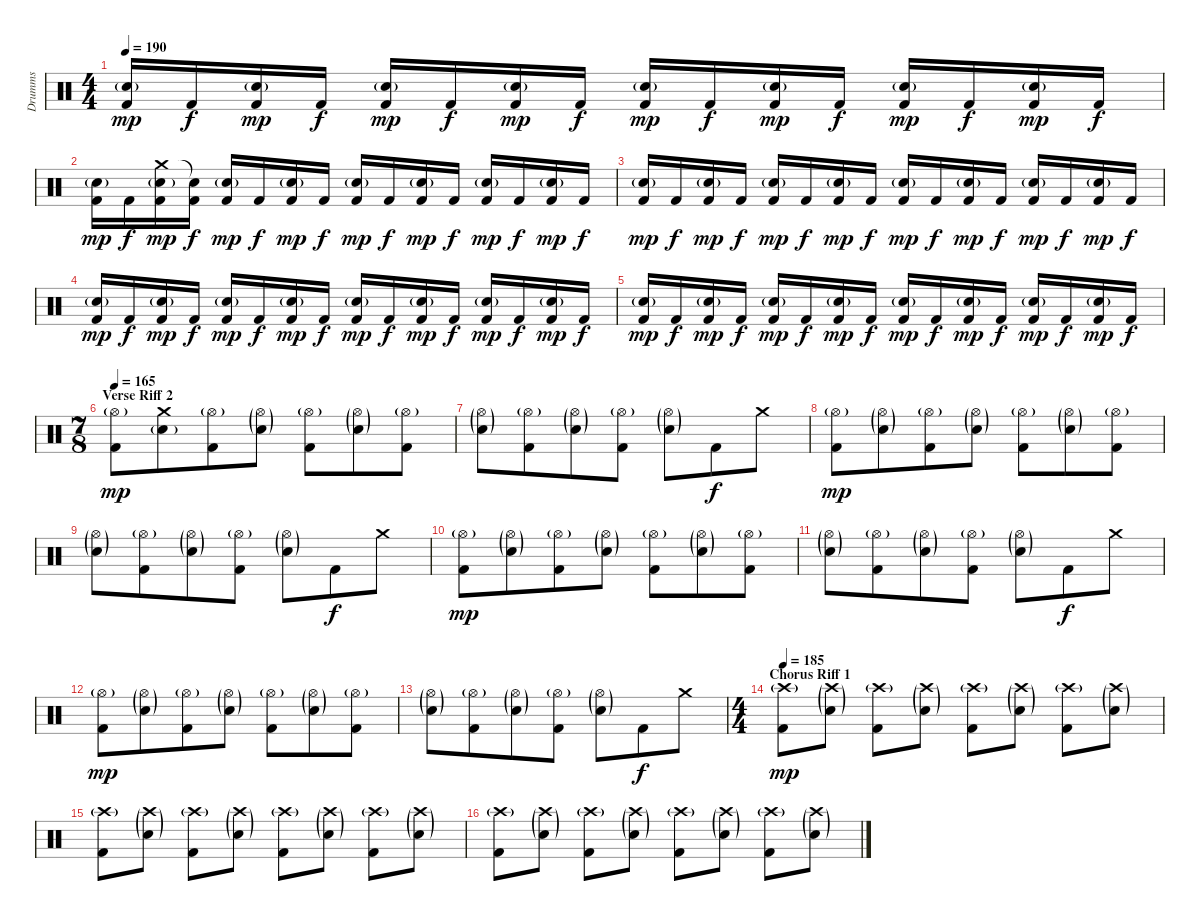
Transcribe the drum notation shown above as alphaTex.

\track ("Drumms" "Drumms") {instrument percussion}
\staff {score}
\articulation defaults
\ts (4 4)
\tempo 190
\clef neutral
\ks c
("Electric Snare (hit)"{g} "Kick (hit) 2").16{dy mp} "Kick (hit) 2".16{dy f} ("Electric Snare (hit)"{g} "Kick (hit) 2").16{dy mp} "Kick (hit) 2".16{dy f} ("Electric Snare (hit)"{g} "Kick (hit) 2").16{dy mp} "Kick (hit) 2".16{dy f} ("Electric Snare (hit)"{g} "Kick (hit) 2").16{dy mp} "Kick (hit) 2".16{dy f} ("Electric Snare (hit)"{g} "Kick (hit) 2").16{dy mp} "Kick (hit) 2".16{dy f} ("Electric Snare (hit)"{g} "Kick (hit) 2").16{dy mp} "Kick (hit) 2".16{dy f} ("Electric Snare (hit)"{g} "Kick (hit) 2").16{dy mp} "Kick (hit) 2".16{dy f} ("Electric Snare (hit)"{g} "Kick (hit) 2").16{dy mp} "Kick (hit) 2".16{dy f} |
("Electric Snare (hit)"{g} "Kick (hit) 2").16{dy mp} "Kick (hit) 2".16{dy f} ("Crash medium (hit)" "Electric Snare (hit)"{g} "Kick (hit) 2").16{dy mp} ("Snare (hit)"{t} "Kick (hit) 2").16{dy f} ("Electric Snare (hit)"{g} "Kick (hit) 2").16{dy mp} "Kick (hit) 2".16{dy f} ("Electric Snare (hit)"{g} "Kick (hit) 2").16{dy mp} "Kick (hit) 2".16{dy f} ("Electric Snare (hit)"{g} "Kick (hit) 2").16{dy mp} "Kick (hit) 2".16{dy f} ("Electric Snare (hit)"{g} "Kick (hit) 2").16{dy mp} "Kick (hit) 2".16{dy f} ("Electric Snare (hit)"{g} "Kick (hit) 2").16{dy mp} "Kick (hit) 2".16{dy f} ("Electric Snare (hit)"{g} "Kick (hit) 2").16{dy mp} "Kick (hit) 2".16{dy f} |
("Electric Snare (hit)"{g} "Kick (hit) 2").16{dy mp} "Kick (hit) 2".16{dy f} ("Electric Snare (hit)"{g} "Kick (hit) 2").16{dy mp} "Kick (hit) 2".16{dy f} ("Electric Snare (hit)"{g} "Kick (hit) 2").16{dy mp} "Kick (hit) 2".16{dy f} ("Electric Snare (hit)"{g} "Kick (hit) 2").16{dy mp} "Kick (hit) 2".16{dy f} ("Electric Snare (hit)"{g} "Kick (hit) 2").16{dy mp} "Kick (hit) 2".16{dy f} ("Electric Snare (hit)"{g} "Kick (hit) 2").16{dy mp} "Kick (hit) 2".16{dy f} ("Electric Snare (hit)"{g} "Kick (hit) 2").16{dy mp} "Kick (hit) 2".16{dy f} ("Electric Snare (hit)"{g} "Kick (hit) 2").16{dy mp} "Kick (hit) 2".16{dy f} |
("Electric Snare (hit)"{g} "Kick (hit) 2").16{dy mp} "Kick (hit) 2".16{dy f} ("Electric Snare (hit)"{g} "Kick (hit) 2").16{dy mp} "Kick (hit) 2".16{dy f} ("Electric Snare (hit)"{g} "Kick (hit) 2").16{dy mp} "Kick (hit) 2".16{dy f} ("Electric Snare (hit)"{g} "Kick (hit) 2").16{dy mp} "Kick (hit) 2".16{dy f} ("Electric Snare (hit)"{g} "Kick (hit) 2").16{dy mp} "Kick (hit) 2".16{dy f} ("Electric Snare (hit)"{g} "Kick (hit) 2").16{dy mp} "Kick (hit) 2".16{dy f} ("Electric Snare (hit)"{g} "Kick (hit) 2").16{dy mp} "Kick (hit) 2".16{dy f} ("Electric Snare (hit)"{g} "Kick (hit) 2").16{dy mp} "Kick (hit) 2".16{dy f} |
("Electric Snare (hit)"{g} "Kick (hit) 2").16{dy mp} "Kick (hit) 2".16{dy f} ("Electric Snare (hit)"{g} "Kick (hit) 2").16{dy mp} "Kick (hit) 2".16{dy f} ("Electric Snare (hit)"{g} "Kick (hit) 2").16{dy mp} "Kick (hit) 2".16{dy f} ("Electric Snare (hit)"{g} "Kick (hit) 2").16{dy mp} "Kick (hit) 2".16{dy f} ("Electric Snare (hit)"{g} "Kick (hit) 2").16{dy mp} "Kick (hit) 2".16{dy f} ("Electric Snare (hit)"{g} "Kick (hit) 2").16{dy mp} "Kick (hit) 2".16{dy f} ("Electric Snare (hit)"{g} "Kick (hit) 2").16{dy mp} "Kick (hit) 2".16{dy f} ("Electric Snare (hit)"{g} "Kick (hit) 2").16{dy mp} "Kick (hit) 2".16{dy f} |
\ts (7 8)
\section ("" "Verse Riff 2")
\tempo 165
("Hi-Hat (open)"{g} "Kick (hit) 2").8{dy mp} ("Crash medium (hit)" "Snare (hit) 2"{g}).8 ("Hi-Hat (open)"{g} "Kick (hit) 2").8 ("Hi-Hat (open)"{g} "Snare (hit) 2"{g}).8 ("Hi-Hat (open)"{g} "Kick (hit) 2").8 ("Hi-Hat (open)"{g} "Snare (hit) 2"{g}).8 ("Hi-Hat (open)"{g} "Kick (hit) 2").8 |
("Hi-Hat (open)"{g} "Snare (hit) 2"{g}).8 ("Hi-Hat (open)"{g} "Kick (hit) 2").8 ("Hi-Hat (open)"{g} "Snare (hit) 2"{g}).8 ("Hi-Hat (open)"{g} "Kick (hit) 2").8 ("Hi-Hat (open)"{g} "Snare (hit) 2"{g}).8 "Kick (hit) 2".8{dy f} "Crash medium (hit)".8 |
("Hi-Hat (open)"{g} "Kick (hit) 2").8{dy mp} ("Hi-Hat (open)"{g} "Snare (hit) 2"{g}).8 ("Hi-Hat (open)"{g} "Kick (hit) 2").8 ("Hi-Hat (open)"{g} "Snare (hit) 2"{g}).8 ("Hi-Hat (open)"{g} "Kick (hit) 2").8 ("Hi-Hat (open)"{g} "Snare (hit) 2"{g}).8 ("Hi-Hat (open)"{g} "Kick (hit) 2").8 |
("Hi-Hat (open)"{g} "Snare (hit) 2"{g}).8 ("Hi-Hat (open)"{g} "Kick (hit) 2").8 ("Hi-Hat (open)"{g} "Snare (hit) 2"{g}).8 ("Hi-Hat (open)"{g} "Kick (hit) 2").8 ("Hi-Hat (open)"{g} "Snare (hit) 2"{g}).8 "Kick (hit) 2".8{dy f} "Crash medium (hit)".8 |
("Hi-Hat (open)"{g} "Kick (hit) 2").8{dy mp} ("Hi-Hat (open)"{g} "Snare (hit) 2"{g}).8 ("Hi-Hat (open)"{g} "Kick (hit) 2").8 ("Hi-Hat (open)"{g} "Snare (hit) 2"{g}).8 ("Hi-Hat (open)"{g} "Kick (hit) 2").8 ("Hi-Hat (open)"{g} "Snare (hit) 2"{g}).8 ("Hi-Hat (open)"{g} "Kick (hit) 2").8 |
("Hi-Hat (open)"{g} "Snare (hit) 2"{g}).8 ("Hi-Hat (open)"{g} "Kick (hit) 2").8 ("Hi-Hat (open)"{g} "Snare (hit) 2"{g}).8 ("Hi-Hat (open)"{g} "Kick (hit) 2").8 ("Hi-Hat (open)"{g} "Snare (hit) 2"{g}).8 "Kick (hit) 2".8{dy f} "Crash medium (hit)".8 |
("Hi-Hat (open)"{g} "Kick (hit) 2").8{dy mp} ("Hi-Hat (open)"{g} "Snare (hit) 2"{g}).8 ("Hi-Hat (open)"{g} "Kick (hit) 2").8 ("Hi-Hat (open)"{g} "Snare (hit) 2"{g}).8 ("Hi-Hat (open)"{g} "Kick (hit) 2").8 ("Hi-Hat (open)"{g} "Snare (hit) 2"{g}).8 ("Hi-Hat (open)"{g} "Kick (hit) 2").8 |
("Hi-Hat (open)"{g} "Snare (hit) 2"{g}).8 ("Hi-Hat (open)"{g} "Kick (hit) 2").8 ("Hi-Hat (open)"{g} "Snare (hit) 2"{g}).8 ("Hi-Hat (open)"{g} "Kick (hit) 2").8 ("Hi-Hat (open)"{g} "Snare (hit) 2"{g}).8 "Kick (hit) 2".8{dy f} "Crash medium (hit)".8 |
\ts (4 4)
\section ("" "Chorus Riff 1")
\tempo 185
("Crash high (hit)"{g} "Kick (hit) 2").8{dy mp} ("Crash high (hit)"{g} "Snare (hit) 2"{g}).8 ("Crash high (hit)"{g} "Kick (hit) 2").8 ("Crash high (hit)"{g} "Snare (hit) 2"{g}).8 ("Crash high (hit)"{g} "Kick (hit) 2").8 ("Crash high (hit)"{g} "Snare (hit) 2"{g}).8 ("Crash high (hit)"{g} "Kick (hit) 2").8 ("Crash high (hit)"{g} "Snare (hit) 2"{g}).8 |
("Crash high (hit)"{g} "Kick (hit) 2").8 ("Crash high (hit)"{g} "Snare (hit) 2"{g}).8 ("Crash high (hit)"{g} "Kick (hit) 2").8 ("Crash high (hit)"{g} "Snare (hit) 2"{g}).8 ("Crash high (hit)"{g} "Kick (hit) 2").8 ("Crash high (hit)"{g} "Snare (hit) 2"{g}).8 ("Crash high (hit)"{g} "Kick (hit) 2").8 ("Crash high (hit)"{g} "Snare (hit) 2"{g}).8 |
("Crash high (hit)"{g} "Kick (hit) 2").8 ("Crash high (hit)"{g} "Snare (hit) 2"{g}).8 ("Crash high (hit)"{g} "Kick (hit) 2").8 ("Crash high (hit)"{g} "Snare (hit) 2"{g}).8 ("Crash high (hit)"{g} "Kick (hit) 2").8 ("Crash high (hit)"{g} "Snare (hit) 2"{g}).8 ("Crash high (hit)"{g} "Kick (hit) 2").8 ("Crash high (hit)"{g} "Snare (hit) 2"{g}).8
